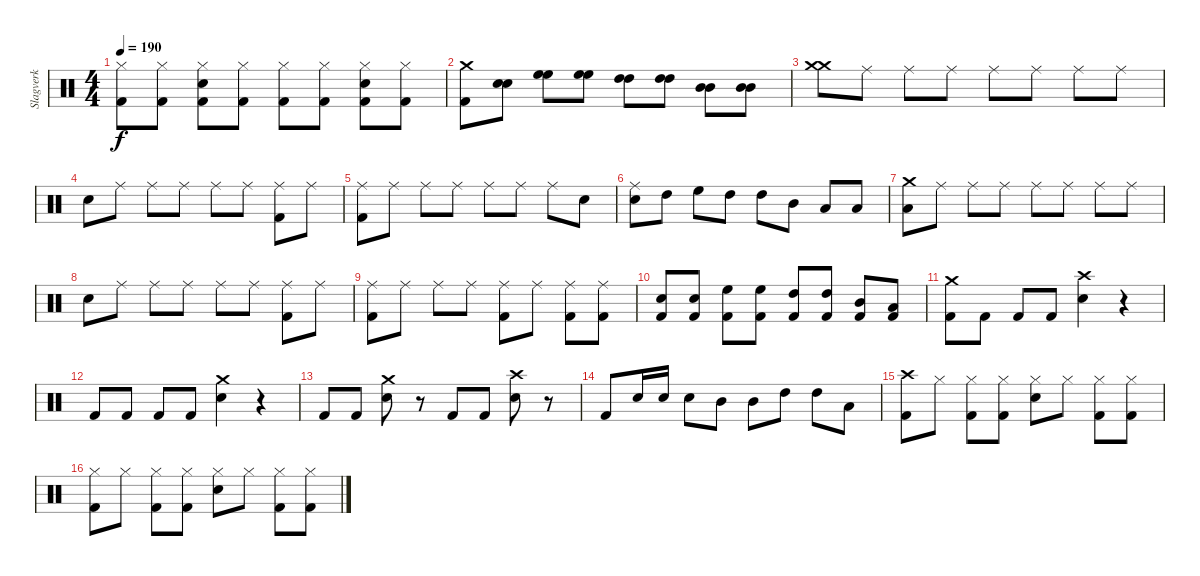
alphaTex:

\track ("Slagverk" "Slagverk") {instrument percussion}
\staff {score}
\articulation defaults
\ts (4 4)
\tempo 190
\clef neutral
\ks c
("Hi-Hat (closed)" "Kick (hit) 2").8{dy f} ("Hi-Hat (closed)" "Kick (hit) 2").8 ("Hi-Hat (closed)" "Snare (hit) 2" "Kick (hit) 2").8 ("Hi-Hat (closed)" "Kick (hit) 2").8 ("Hi-Hat (closed)" "Kick (hit) 2").8 ("Hi-Hat (closed)" "Kick (hit) 2").8 ("Hi-Hat (closed)" "Snare (hit) 2" "Kick (hit) 2").8 ("Hi-Hat (closed)" "Kick (hit) 2").8 |
("Crash medium (hit)" "Kick (hit) 2").8 ("Snare (hit) 2" "Snare (hit) 2").8 ("High Floor Tom (hit)" "High Floor Tom (hit)").8 ("High Floor Tom (hit)" "High Floor Tom (hit)").8 ("High Tom (hit)" "High Tom (hit)").8 ("High Tom (hit)" "High Tom (hit)").8 ("Mid Tom (hit)" "Mid Tom (hit)").8 ("Mid Tom (hit)" "Mid Tom (hit)").8 |
("Crash medium (hit)" "Crash medium (hit)").8 "Ride (middle)".8 "Ride (middle)".8 "Ride (middle)".8 "Ride (middle)".8 "Ride (middle)".8 "Ride (middle)".8 "Ride (middle)".8 |
"Snare (hit) 2".8 "Ride (middle)".8 "Ride (middle)".8 "Ride (middle)".8 "Ride (middle)".8 "Ride (middle)".8 ("Ride (middle)" "Kick (hit) 2").8 "Ride (middle)".8 |
("Ride (middle)" "Kick (hit) 2").8 "Ride (middle)".8 "Ride (middle)".8 "Ride (middle)".8 "Ride (middle)".8 "Ride (middle)".8 "Ride (middle)".8 "Snare (hit) 2".8 |
("Ride (middle)" "Snare (hit) 2").8 "High Tom (hit)".8 "High Floor Tom (hit)".8 "High Tom (hit)".8 "High Tom (hit)".8 "Mid Tom (hit)".8 "Low Floor Tom (hit)".8 "Low Floor Tom (hit)".8 |
("Crash medium (hit)" "Low Floor Tom (hit)").8 "Ride (middle)".8 "Ride (middle)".8 "Ride (middle)".8 "Ride (middle)".8 "Ride (middle)".8 "Ride (middle)".8 "Ride (middle)".8 |
"Snare (hit) 2".8 "Ride (middle)".8 "Ride (middle)".8 "Ride (middle)".8 "Ride (middle)".8 "Ride (middle)".8 ("Ride (middle)" "Kick (hit) 2").8 "Ride (middle)".8 |
("Ride (middle)" "Kick (hit) 2").8 "Ride (middle)".8 "Ride (middle)".8 "Ride (middle)".8 ("Ride (middle)" "Kick (hit) 2").8 "Ride (middle)".8 ("Ride (middle)" "Kick (hit) 2").8 ("Ride (middle)" "Kick (hit) 2").8 |
("Snare (hit) 2" "Kick (hit) 2").8 ("Snare (hit) 2" "Kick (hit) 2").8 ("High Floor Tom (hit)" "Kick (hit) 2").8 ("High Floor Tom (hit)" "Kick (hit) 2").8 ("High Tom (hit)" "Kick (hit) 2").8 ("High Tom (hit)" "Kick (hit) 2").8 ("Mid Tom (hit)" "Kick (hit) 2").8 ("Low Floor Tom (hit)" "Kick (hit) 2").8 |
("Crash medium (hit)" "Kick (hit) 2").8 "Kick (hit) 2".8 "Kick (hit) 2".8 "Kick (hit) 2".8 ("Crash high (hit)" "Snare (hit) 2").4 r.4 |
"Kick (hit) 2".8 "Kick (hit) 2".8 "Kick (hit) 2".8 "Kick (hit) 2".8 ("Crash medium (hit)" "Snare (hit) 2").4 r.4 |
"Kick (hit) 2".8 "Kick (hit) 2".8 ("Crash medium (hit)" "Snare (hit) 2").8 r.8 "Kick (hit) 2".8 "Kick (hit) 2".8 ("Crash high (hit)" "Snare (hit) 2").8 r.8 |
"Kick (hit) 2".8 "Snare (hit) 2".16 "Snare (hit) 2".16 "Snare (hit) 2".8 "Mid Tom (hit)".8 "Mid Tom (hit)".8 "High Tom (hit)".8 "High Tom (hit)".8 "Low Tom (hit)".8 |
("Crash high (hit)" "Kick (hit) 2").8 "Hi-Hat (closed)".8 ("Hi-Hat (closed)" "Kick (hit) 2").8 ("Hi-Hat (closed)" "Kick (hit) 2").8 ("Hi-Hat (closed)" "Snare (hit) 2").8 "Hi-Hat (closed)".8 ("Hi-Hat (closed)" "Kick (hit) 2").8 ("Hi-Hat (closed)" "Kick (hit) 2").8 |
("Hi-Hat (closed)" "Kick (hit) 2").8 "Hi-Hat (closed)".8 ("Hi-Hat (closed)" "Kick (hit) 2").8 ("Hi-Hat (closed)" "Kick (hit) 2").8 ("Hi-Hat (closed)" "Snare (hit) 2").8 "Hi-Hat (closed)".8 ("Hi-Hat (closed)" "Kick (hit) 2").8 ("Hi-Hat (closed)" "Kick (hit) 2").8
